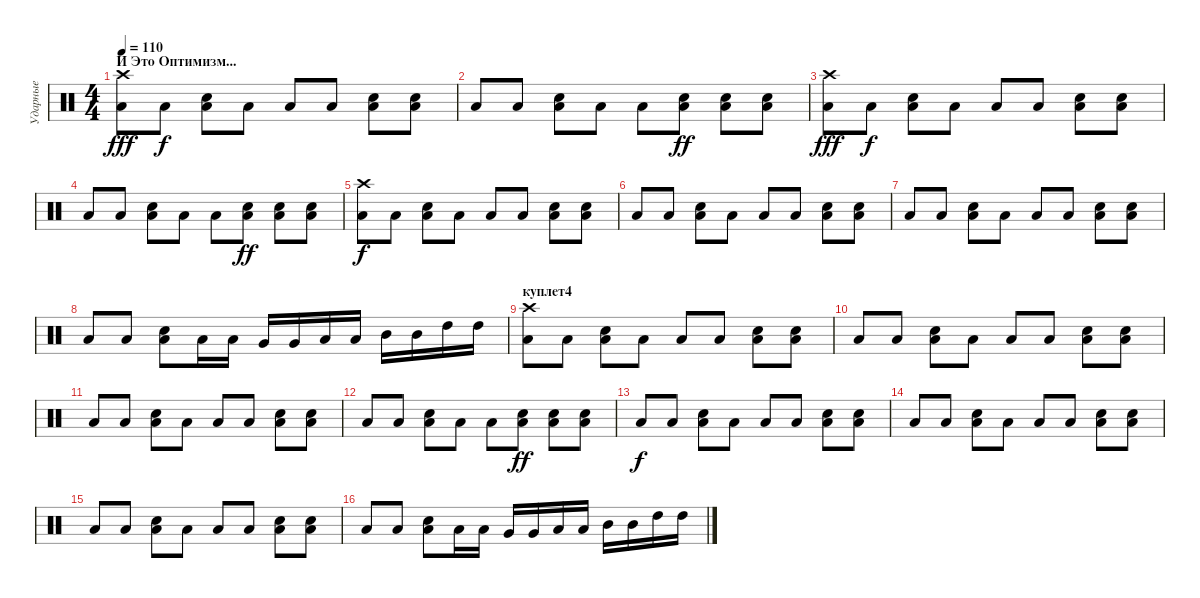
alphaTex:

\track ("Ударные" "Ударные") {instrument percussion}
\staff {score}
\articulation defaults
\ts (4 4)
\section ("" "И Это Оптимизм...")
\tempo 110
\clef neutral
\ks c
("Crash high (hit)" "Low Floor Tom (hit)").8{dy fff} "Low Floor Tom (hit)".8{dy f} ("Snare (hit) 2" "Low Floor Tom (hit)").8 "Low Floor Tom (hit)".8 "Low Floor Tom (hit)".8 "Low Floor Tom (hit)".8 ("Snare (hit) 2" "Low Floor Tom (hit)").8 ("Snare (hit) 2" "Low Floor Tom (hit)").8 |
"Low Floor Tom (hit)".8 "Low Floor Tom (hit)".8 ("Snare (hit) 2" "Low Floor Tom (hit)").8 "Low Floor Tom (hit)".8 "Low Floor Tom (hit)".8 ("Snare (hit) 2" "Low Floor Tom (hit)").8{dy ff} ("Snare (hit) 2" "Low Floor Tom (hit)").8 ("Snare (hit) 2" "Low Floor Tom (hit)").8 |
("Crash high (hit)" "Low Floor Tom (hit)").8{dy fff} "Low Floor Tom (hit)".8{dy f} ("Snare (hit) 2" "Low Floor Tom (hit)").8 "Low Floor Tom (hit)".8 "Low Floor Tom (hit)".8 "Low Floor Tom (hit)".8 ("Snare (hit) 2" "Low Floor Tom (hit)").8 ("Snare (hit) 2" "Low Floor Tom (hit)").8 |
"Low Floor Tom (hit)".8 "Low Floor Tom (hit)".8 ("Snare (hit) 2" "Low Floor Tom (hit)").8 "Low Floor Tom (hit)".8 "Low Floor Tom (hit)".8 ("Snare (hit) 2" "Low Floor Tom (hit)").8{dy ff} ("Snare (hit) 2" "Low Floor Tom (hit)").8 ("Snare (hit) 2" "Low Floor Tom (hit)").8 |
("Crash high (hit)" "Low Floor Tom (hit)").8{dy f} "Low Floor Tom (hit)".8 ("Snare (hit) 2" "Low Floor Tom (hit)").8 "Low Floor Tom (hit)".8 "Low Floor Tom (hit)".8 "Low Floor Tom (hit)".8 ("Snare (hit) 2" "Low Floor Tom (hit)").8 ("Snare (hit) 2" "Low Floor Tom (hit)").8 |
"Low Floor Tom (hit)".8 "Low Floor Tom (hit)".8 ("Snare (hit) 2" "Low Floor Tom (hit)").8 "Low Floor Tom (hit)".8 "Low Floor Tom (hit)".8 "Low Floor Tom (hit)".8 ("Snare (hit) 2" "Low Floor Tom (hit)").8 ("Snare (hit) 2" "Low Floor Tom (hit)").8 |
"Low Floor Tom (hit)".8 "Low Floor Tom (hit)".8 ("Snare (hit) 2" "Low Floor Tom (hit)").8 "Low Floor Tom (hit)".8 "Low Floor Tom (hit)".8 "Low Floor Tom (hit)".8 ("Snare (hit) 2" "Low Floor Tom (hit)").8 ("Snare (hit) 2" "Low Floor Tom (hit)").8 |
"Low Floor Tom (hit)".8 "Low Floor Tom (hit)".8 ("Snare (hit) 2" "Low Floor Tom (hit)").8 "Low Floor Tom (hit)".16 "Low Floor Tom (hit)".16 "Very Low Tom (hit)".16 "Very Low Tom (hit)".16 "Low Tom (hit)".16 "Low Tom (hit)".16 "Mid Tom (hit)".16 "Mid Tom (hit)".16 "High Tom (hit)".16 "High Tom (hit)".16 |
\section ("" "куплет4")
("Crash high (hit)" "Low Floor Tom (hit)").8 "Low Floor Tom (hit)".8 ("Snare (hit) 2" "Low Floor Tom (hit)").8 "Low Floor Tom (hit)".8 "Low Floor Tom (hit)".8 "Low Floor Tom (hit)".8 ("Snare (hit) 2" "Low Floor Tom (hit)").8 ("Snare (hit) 2" "Low Floor Tom (hit)").8 |
"Low Floor Tom (hit)".8 "Low Floor Tom (hit)".8 ("Snare (hit) 2" "Low Floor Tom (hit)").8 "Low Floor Tom (hit)".8 "Low Floor Tom (hit)".8 "Low Floor Tom (hit)".8 ("Snare (hit) 2" "Low Floor Tom (hit)").8 ("Snare (hit) 2" "Low Floor Tom (hit)").8 |
"Low Floor Tom (hit)".8 "Low Floor Tom (hit)".8 ("Snare (hit) 2" "Low Floor Tom (hit)").8 "Low Floor Tom (hit)".8 "Low Floor Tom (hit)".8 "Low Floor Tom (hit)".8 ("Snare (hit) 2" "Low Floor Tom (hit)").8 ("Snare (hit) 2" "Low Floor Tom (hit)").8 |
"Low Floor Tom (hit)".8 "Low Floor Tom (hit)".8 ("Snare (hit) 2" "Low Floor Tom (hit)").8 "Low Floor Tom (hit)".8 "Low Floor Tom (hit)".8 ("Snare (hit) 2" "Low Floor Tom (hit)").8{dy ff} ("Snare (hit) 2" "Low Floor Tom (hit)").8 ("Snare (hit) 2" "Low Floor Tom (hit)").8 |
"Low Floor Tom (hit)".8{dy f} "Low Floor Tom (hit)".8 ("Snare (hit) 2" "Low Floor Tom (hit)").8 "Low Floor Tom (hit)".8 "Low Floor Tom (hit)".8 "Low Floor Tom (hit)".8 ("Snare (hit) 2" "Low Floor Tom (hit)").8 ("Snare (hit) 2" "Low Floor Tom (hit)").8 |
"Low Floor Tom (hit)".8 "Low Floor Tom (hit)".8 ("Snare (hit) 2" "Low Floor Tom (hit)").8 "Low Floor Tom (hit)".8 "Low Floor Tom (hit)".8 "Low Floor Tom (hit)".8 ("Snare (hit) 2" "Low Floor Tom (hit)").8 ("Snare (hit) 2" "Low Floor Tom (hit)").8 |
"Low Floor Tom (hit)".8 "Low Floor Tom (hit)".8 ("Snare (hit) 2" "Low Floor Tom (hit)").8 "Low Floor Tom (hit)".8 "Low Floor Tom (hit)".8 "Low Floor Tom (hit)".8 ("Snare (hit) 2" "Low Floor Tom (hit)").8 ("Snare (hit) 2" "Low Floor Tom (hit)").8 |
"Low Floor Tom (hit)".8 "Low Floor Tom (hit)".8 ("Snare (hit) 2" "Low Floor Tom (hit)").8 "Low Floor Tom (hit)".16 "Low Floor Tom (hit)".16 "Very Low Tom (hit)".16 "Very Low Tom (hit)".16 "Low Tom (hit)".16 "Low Tom (hit)".16 "Mid Tom (hit)".16 "Mid Tom (hit)".16 "High Tom (hit)".16 "High Tom (hit)".16
